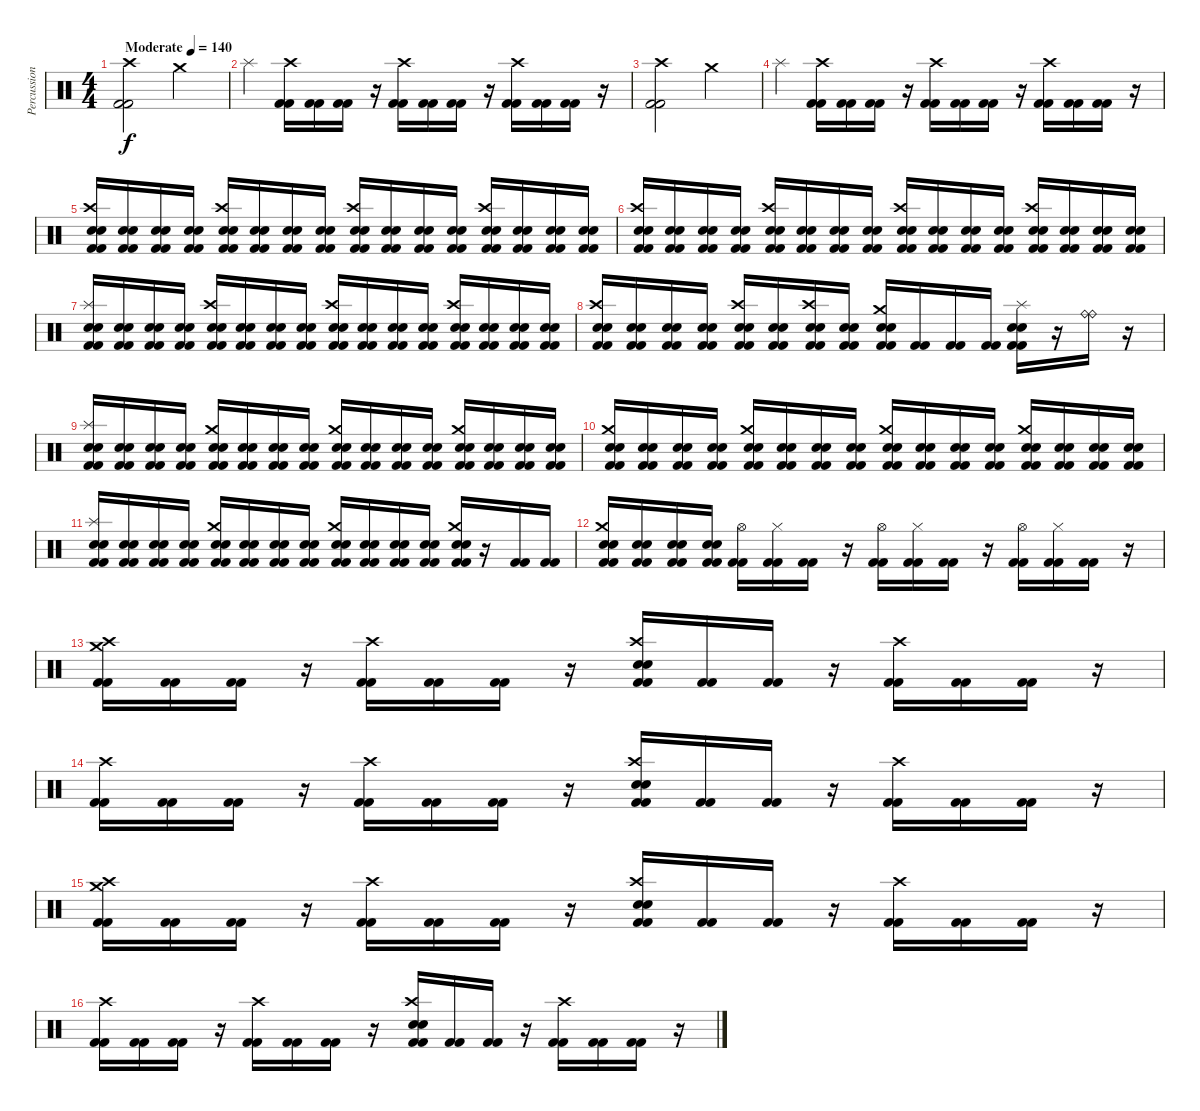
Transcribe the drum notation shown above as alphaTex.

\track ("Percussions" "Percussion") {instrument percussion}
\staff {score}
\articulation defaults
\ts (4 4)
\tempo (140 "Moderate")
\clef neutral
\ks c
("Kick (hit) 2" "Kick (hit) 2" "Crash high (hit)").2{dy f} "Crash medium (hit)".2 |
"Splash (hit)".4 ("Crash high (hit)" "Kick (hit) 2" "Kick (hit) 2").16 ("Kick (hit) 2" "Kick (hit) 2").16 ("Kick (hit) 2" "Kick (hit) 2").16 r.16 ("Crash high (hit)" "Kick (hit) 2" "Kick (hit) 2").16 ("Kick (hit) 2" "Kick (hit) 2").16 ("Kick (hit) 2" "Kick (hit) 2").16 r.16 ("Crash high (hit)" "Kick (hit) 2" "Kick (hit) 2").16 ("Kick (hit) 2" "Kick (hit) 2").16 ("Kick (hit) 2" "Kick (hit) 2").16 r.16 |
("Kick (hit) 2" "Kick (hit) 2" "Crash high (hit)").2 "Crash medium (hit)".2 |
"Splash (hit)".4 ("Crash high (hit)" "Kick (hit) 2" "Kick (hit) 2").16 ("Kick (hit) 2" "Kick (hit) 2").16 ("Kick (hit) 2" "Kick (hit) 2").16 r.16 ("Crash high (hit)" "Kick (hit) 2" "Kick (hit) 2").16 ("Kick (hit) 2" "Kick (hit) 2").16 ("Kick (hit) 2" "Kick (hit) 2").16 r.16 ("Crash high (hit)" "Kick (hit) 2" "Kick (hit) 2").16 ("Kick (hit) 2" "Kick (hit) 2").16 ("Kick (hit) 2" "Kick (hit) 2").16 r.16 |
("Crash high (hit)" "Electric Snare (hit)" "Electric Snare (hit)" "Kick (hit) 2" "Kick (hit) 2").16 ("Electric Snare (hit)" "Electric Snare (hit)" "Kick (hit) 2" "Kick (hit) 2").16 ("Electric Snare (hit)" "Electric Snare (hit)" "Kick (hit) 2" "Kick (hit) 2").16 ("Electric Snare (hit)" "Electric Snare (hit)" "Kick (hit) 2" "Kick (hit) 2").16 ("Crash high (hit)" "Electric Snare (hit)" "Electric Snare (hit)" "Kick (hit) 2" "Kick (hit) 2").16 ("Electric Snare (hit)" "Electric Snare (hit)" "Kick (hit) 2" "Kick (hit) 2").16 ("Electric Snare (hit)" "Electric Snare (hit)" "Kick (hit) 2" "Kick (hit) 2").16 ("Electric Snare (hit)" "Electric Snare (hit)" "Kick (hit) 2" "Kick (hit) 2").16 ("Crash high (hit)" "Electric Snare (hit)" "Electric Snare (hit)" "Kick (hit) 2" "Kick (hit) 2").16 ("Electric Snare (hit)" "Electric Snare (hit)" "Kick (hit) 2" "Kick (hit) 2").16 ("Electric Snare (hit)" "Electric Snare (hit)" "Kick (hit) 2" "Kick (hit) 2").16 ("Electric Snare (hit)" "Electric Snare (hit)" "Kick (hit) 2" "Kick (hit) 2").16 ("Crash high (hit)" "Electric Snare (hit)" "Electric Snare (hit)" "Kick (hit) 2" "Kick (hit) 2").16 ("Electric Snare (hit)" "Electric Snare (hit)" "Kick (hit) 2" "Kick (hit) 2").16 ("Electric Snare (hit)" "Electric Snare (hit)" "Kick (hit) 2" "Kick (hit) 2").16 ("Electric Snare (hit)" "Electric Snare (hit)" "Kick (hit) 2" "Kick (hit) 2").16 |
("Crash high (hit)" "Electric Snare (hit)" "Electric Snare (hit)" "Kick (hit) 2" "Kick (hit) 2").16 ("Electric Snare (hit)" "Electric Snare (hit)" "Kick (hit) 2" "Kick (hit) 2").16 ("Electric Snare (hit)" "Electric Snare (hit)" "Kick (hit) 2" "Kick (hit) 2").16 ("Electric Snare (hit)" "Electric Snare (hit)" "Kick (hit) 2" "Kick (hit) 2").16 ("Crash high (hit)" "Electric Snare (hit)" "Electric Snare (hit)" "Kick (hit) 2" "Kick (hit) 2").16 ("Electric Snare (hit)" "Electric Snare (hit)" "Kick (hit) 2" "Kick (hit) 2").16 ("Electric Snare (hit)" "Electric Snare (hit)" "Kick (hit) 2" "Kick (hit) 2").16 ("Electric Snare (hit)" "Electric Snare (hit)" "Kick (hit) 2" "Kick (hit) 2").16 ("Crash high (hit)" "Electric Snare (hit)" "Electric Snare (hit)" "Kick (hit) 2" "Kick (hit) 2").16 ("Electric Snare (hit)" "Electric Snare (hit)" "Kick (hit) 2" "Kick (hit) 2").16 ("Electric Snare (hit)" "Electric Snare (hit)" "Kick (hit) 2" "Kick (hit) 2").16 ("Electric Snare (hit)" "Electric Snare (hit)" "Kick (hit) 2" "Kick (hit) 2").16 ("Crash high (hit)" "Electric Snare (hit)" "Electric Snare (hit)" "Kick (hit) 2" "Kick (hit) 2").16 ("Electric Snare (hit)" "Electric Snare (hit)" "Kick (hit) 2" "Kick (hit) 2").16 ("Electric Snare (hit)" "Electric Snare (hit)" "Kick (hit) 2" "Kick (hit) 2").16 ("Electric Snare (hit)" "Electric Snare (hit)" "Kick (hit) 2" "Kick (hit) 2").16 |
("Splash (hit)" "Electric Snare (hit)" "Electric Snare (hit)" "Kick (hit) 2" "Kick (hit) 2").16 ("Electric Snare (hit)" "Electric Snare (hit)" "Kick (hit) 2" "Kick (hit) 2").16 ("Electric Snare (hit)" "Electric Snare (hit)" "Kick (hit) 2" "Kick (hit) 2").16 ("Electric Snare (hit)" "Electric Snare (hit)" "Kick (hit) 2" "Kick (hit) 2").16 ("Crash high (hit)" "Electric Snare (hit)" "Electric Snare (hit)" "Kick (hit) 2" "Kick (hit) 2").16 ("Electric Snare (hit)" "Electric Snare (hit)" "Kick (hit) 2" "Kick (hit) 2").16 ("Electric Snare (hit)" "Electric Snare (hit)" "Kick (hit) 2" "Kick (hit) 2").16 ("Electric Snare (hit)" "Electric Snare (hit)" "Kick (hit) 2" "Kick (hit) 2").16 ("Crash high (hit)" "Electric Snare (hit)" "Electric Snare (hit)" "Kick (hit) 2" "Kick (hit) 2").16 ("Electric Snare (hit)" "Electric Snare (hit)" "Kick (hit) 2" "Kick (hit) 2").16 ("Electric Snare (hit)" "Electric Snare (hit)" "Kick (hit) 2" "Kick (hit) 2").16 ("Electric Snare (hit)" "Electric Snare (hit)" "Kick (hit) 2" "Kick (hit) 2").16 ("Crash high (hit)" "Electric Snare (hit)" "Electric Snare (hit)" "Kick (hit) 2" "Kick (hit) 2").16 ("Electric Snare (hit)" "Electric Snare (hit)" "Kick (hit) 2" "Kick (hit) 2").16 ("Electric Snare (hit)" "Electric Snare (hit)" "Kick (hit) 2" "Kick (hit) 2").16 ("Electric Snare (hit)" "Electric Snare (hit)" "Kick (hit) 2" "Kick (hit) 2").16 |
("Crash high (hit)" "Electric Snare (hit)" "Electric Snare (hit)" "Kick (hit) 2" "Kick (hit) 2").16 ("Electric Snare (hit)" "Electric Snare (hit)" "Kick (hit) 2" "Kick (hit) 2").16 ("Electric Snare (hit)" "Electric Snare (hit)" "Kick (hit) 2" "Kick (hit) 2").16 ("Electric Snare (hit)" "Electric Snare (hit)" "Kick (hit) 2" "Kick (hit) 2").16 ("Crash high (hit)" "Electric Snare (hit)" "Electric Snare (hit)" "Kick (hit) 2" "Kick (hit) 2").16 ("Electric Snare (hit)" "Electric Snare (hit)" "Kick (hit) 2" "Kick (hit) 2").16 ("Crash high (hit)" "Electric Snare (hit)" "Electric Snare (hit)" "Kick (hit) 2" "Kick (hit) 2").16 ("Electric Snare (hit)" "Electric Snare (hit)" "Kick (hit) 2" "Kick (hit) 2").16 ("Crash medium (hit)" "Electric Snare (hit)" "Electric Snare (hit)" "Kick (hit) 2" "Kick (hit) 2").16 ("Kick (hit) 2" "Kick (hit) 2").16 ("Kick (hit) 2" "Kick (hit) 2").16 ("Kick (hit) 2" "Kick (hit) 2").16 ("Splash (hit)" "Electric Snare (hit)" "Electric Snare (hit)" "Kick (hit) 2" "Kick (hit) 2").16 r.16 ("Ride (bell)" "Ride (bell)").16 r.16 |
("Splash (hit)" "Electric Snare (hit)" "Electric Snare (hit)" "Kick (hit) 2" "Kick (hit) 2").16 ("Electric Snare (hit)" "Electric Snare (hit)" "Kick (hit) 2" "Kick (hit) 2").16 ("Electric Snare (hit)" "Electric Snare (hit)" "Kick (hit) 2" "Kick (hit) 2").16 ("Electric Snare (hit)" "Electric Snare (hit)" "Kick (hit) 2" "Kick (hit) 2").16 ("Crash medium (hit)" "Electric Snare (hit)" "Electric Snare (hit)" "Kick (hit) 2" "Kick (hit) 2").16 ("Electric Snare (hit)" "Electric Snare (hit)" "Kick (hit) 2" "Kick (hit) 2").16 ("Electric Snare (hit)" "Electric Snare (hit)" "Kick (hit) 2" "Kick (hit) 2").16 ("Electric Snare (hit)" "Electric Snare (hit)" "Kick (hit) 2" "Kick (hit) 2").16 ("Crash medium (hit)" "Electric Snare (hit)" "Electric Snare (hit)" "Kick (hit) 2" "Kick (hit) 2").16 ("Electric Snare (hit)" "Electric Snare (hit)" "Kick (hit) 2" "Kick (hit) 2").16 ("Electric Snare (hit)" "Electric Snare (hit)" "Kick (hit) 2" "Kick (hit) 2").16 ("Electric Snare (hit)" "Electric Snare (hit)" "Kick (hit) 2" "Kick (hit) 2").16 ("Crash medium (hit)" "Electric Snare (hit)" "Electric Snare (hit)" "Kick (hit) 2" "Kick (hit) 2").16 ("Electric Snare (hit)" "Electric Snare (hit)" "Kick (hit) 2" "Kick (hit) 2").16 ("Electric Snare (hit)" "Electric Snare (hit)" "Kick (hit) 2" "Kick (hit) 2").16 ("Electric Snare (hit)" "Electric Snare (hit)" "Kick (hit) 2" "Kick (hit) 2").16 |
("Crash medium (hit)" "Electric Snare (hit)" "Electric Snare (hit)" "Kick (hit) 2" "Kick (hit) 2").16 ("Electric Snare (hit)" "Electric Snare (hit)" "Kick (hit) 2" "Kick (hit) 2").16 ("Electric Snare (hit)" "Electric Snare (hit)" "Kick (hit) 2" "Kick (hit) 2").16 ("Electric Snare (hit)" "Electric Snare (hit)" "Kick (hit) 2" "Kick (hit) 2").16 ("Crash medium (hit)" "Electric Snare (hit)" "Electric Snare (hit)" "Kick (hit) 2" "Kick (hit) 2").16 ("Electric Snare (hit)" "Electric Snare (hit)" "Kick (hit) 2" "Kick (hit) 2").16 ("Electric Snare (hit)" "Electric Snare (hit)" "Kick (hit) 2" "Kick (hit) 2").16 ("Electric Snare (hit)" "Electric Snare (hit)" "Kick (hit) 2" "Kick (hit) 2").16 ("Crash medium (hit)" "Electric Snare (hit)" "Electric Snare (hit)" "Kick (hit) 2" "Kick (hit) 2").16 ("Electric Snare (hit)" "Electric Snare (hit)" "Kick (hit) 2" "Kick (hit) 2").16 ("Electric Snare (hit)" "Electric Snare (hit)" "Kick (hit) 2" "Kick (hit) 2").16 ("Electric Snare (hit)" "Electric Snare (hit)" "Kick (hit) 2" "Kick (hit) 2").16 ("Crash medium (hit)" "Electric Snare (hit)" "Electric Snare (hit)" "Kick (hit) 2" "Kick (hit) 2").16 ("Electric Snare (hit)" "Electric Snare (hit)" "Kick (hit) 2" "Kick (hit) 2").16 ("Electric Snare (hit)" "Electric Snare (hit)" "Kick (hit) 2" "Kick (hit) 2").16 ("Electric Snare (hit)" "Electric Snare (hit)" "Kick (hit) 2" "Kick (hit) 2").16 |
("Splash (hit)" "Electric Snare (hit)" "Electric Snare (hit)" "Kick (hit) 2" "Kick (hit) 2").16 ("Electric Snare (hit)" "Electric Snare (hit)" "Kick (hit) 2" "Kick (hit) 2").16 ("Electric Snare (hit)" "Electric Snare (hit)" "Kick (hit) 2" "Kick (hit) 2").16 ("Electric Snare (hit)" "Electric Snare (hit)" "Kick (hit) 2" "Kick (hit) 2").16 ("Crash medium (hit)" "Electric Snare (hit)" "Electric Snare (hit)" "Kick (hit) 2" "Kick (hit) 2").16 ("Electric Snare (hit)" "Electric Snare (hit)" "Kick (hit) 2" "Kick (hit) 2").16 ("Electric Snare (hit)" "Electric Snare (hit)" "Kick (hit) 2" "Kick (hit) 2").16 ("Electric Snare (hit)" "Electric Snare (hit)" "Kick (hit) 2" "Kick (hit) 2").16 ("Crash medium (hit)" "Electric Snare (hit)" "Electric Snare (hit)" "Kick (hit) 2" "Kick (hit) 2").16 ("Electric Snare (hit)" "Electric Snare (hit)" "Kick (hit) 2" "Kick (hit) 2").16 ("Electric Snare (hit)" "Electric Snare (hit)" "Kick (hit) 2" "Kick (hit) 2").16 ("Electric Snare (hit)" "Electric Snare (hit)" "Kick (hit) 2" "Kick (hit) 2").16 ("Crash medium (hit)" "Electric Snare (hit)" "Electric Snare (hit)" "Kick (hit) 2" "Kick (hit) 2").16 r.16 ("Kick (hit) 2" "Kick (hit) 2").16 ("Kick (hit) 2" "Kick (hit) 2").16 |
("Crash medium (hit)" "Electric Snare (hit)" "Electric Snare (hit)" "Kick (hit) 2" "Kick (hit) 2").16 ("Electric Snare (hit)" "Electric Snare (hit)" "Kick (hit) 2" "Kick (hit) 2").16 ("Electric Snare (hit)" "Electric Snare (hit)" "Kick (hit) 2" "Kick (hit) 2").16 ("Electric Snare (hit)" "Electric Snare (hit)" "Kick (hit) 2" "Kick (hit) 2").16 ("Hi-Hat (open)" "Kick (hit) 2" "Kick (hit) 2").16 ("Hi-Hat (closed)" "Kick (hit) 2" "Kick (hit) 2").16 ("Kick (hit) 2" "Kick (hit) 2").16 r.16 ("Hi-Hat (open)" "Kick (hit) 2" "Kick (hit) 2").16 ("Hi-Hat (closed)" "Kick (hit) 2" "Kick (hit) 2").16 ("Kick (hit) 2" "Kick (hit) 2").16 r.16 ("Hi-Hat (open)" "Kick (hit) 2" "Kick (hit) 2").16 ("Hi-Hat (closed)" "Kick (hit) 2" "Kick (hit) 2").16 ("Kick (hit) 2" "Kick (hit) 2").16 r.16 |
("Crash high (hit)" "Crash medium (hit)" "Kick (hit) 2" "Kick (hit) 2").16 ("Kick (hit) 2" "Kick (hit) 2").16 ("Kick (hit) 2" "Kick (hit) 2").16 r.16 ("Crash high (hit)" "Kick (hit) 2" "Kick (hit) 2").16 ("Kick (hit) 2" "Kick (hit) 2").16 ("Kick (hit) 2" "Kick (hit) 2").16 r.16 ("Crash high (hit)" "Electric Snare (hit)" "Electric Snare (hit)" "Kick (hit) 2" "Kick (hit) 2").16 ("Kick (hit) 2" "Kick (hit) 2").16 ("Kick (hit) 2" "Kick (hit) 2").16 r.16 ("Crash high (hit)" "Kick (hit) 2" "Kick (hit) 2").16 ("Kick (hit) 2" "Kick (hit) 2").16 ("Kick (hit) 2" "Kick (hit) 2").16 r.16 |
("Crash high (hit)" "Kick (hit) 2" "Kick (hit) 2").16 ("Kick (hit) 2" "Kick (hit) 2").16 ("Kick (hit) 2" "Kick (hit) 2").16 r.16 ("Crash high (hit)" "Kick (hit) 2" "Kick (hit) 2").16 ("Kick (hit) 2" "Kick (hit) 2").16 ("Kick (hit) 2" "Kick (hit) 2").16 r.16 ("Crash high (hit)" "Electric Snare (hit)" "Electric Snare (hit)" "Kick (hit) 2" "Kick (hit) 2").16 ("Kick (hit) 2" "Kick (hit) 2").16 ("Kick (hit) 2" "Kick (hit) 2").16 r.16 ("Crash high (hit)" "Kick (hit) 2" "Kick (hit) 2").16 ("Kick (hit) 2" "Kick (hit) 2").16 ("Kick (hit) 2" "Kick (hit) 2").16 r.16 |
("Crash high (hit)" "Crash medium (hit)" "Kick (hit) 2" "Kick (hit) 2").16 ("Kick (hit) 2" "Kick (hit) 2").16 ("Kick (hit) 2" "Kick (hit) 2").16 r.16 ("Crash high (hit)" "Kick (hit) 2" "Kick (hit) 2").16 ("Kick (hit) 2" "Kick (hit) 2").16 ("Kick (hit) 2" "Kick (hit) 2").16 r.16 ("Crash high (hit)" "Electric Snare (hit)" "Electric Snare (hit)" "Kick (hit) 2" "Kick (hit) 2").16 ("Kick (hit) 2" "Kick (hit) 2").16 ("Kick (hit) 2" "Kick (hit) 2").16 r.16 ("Crash high (hit)" "Kick (hit) 2" "Kick (hit) 2").16 ("Kick (hit) 2" "Kick (hit) 2").16 ("Kick (hit) 2" "Kick (hit) 2").16 r.16 |
("Crash high (hit)" "Kick (hit) 2" "Kick (hit) 2").16 ("Kick (hit) 2" "Kick (hit) 2").16 ("Kick (hit) 2" "Kick (hit) 2").16 r.16 ("Crash high (hit)" "Kick (hit) 2" "Kick (hit) 2").16 ("Kick (hit) 2" "Kick (hit) 2").16 ("Kick (hit) 2" "Kick (hit) 2").16 r.16 ("Crash high (hit)" "Electric Snare (hit)" "Electric Snare (hit)" "Kick (hit) 2" "Kick (hit) 2").16 ("Kick (hit) 2" "Kick (hit) 2").16 ("Kick (hit) 2" "Kick (hit) 2").16 r.16 ("Crash high (hit)" "Kick (hit) 2" "Kick (hit) 2").16 ("Kick (hit) 2" "Kick (hit) 2").16 ("Kick (hit) 2" "Kick (hit) 2").16 r.16
